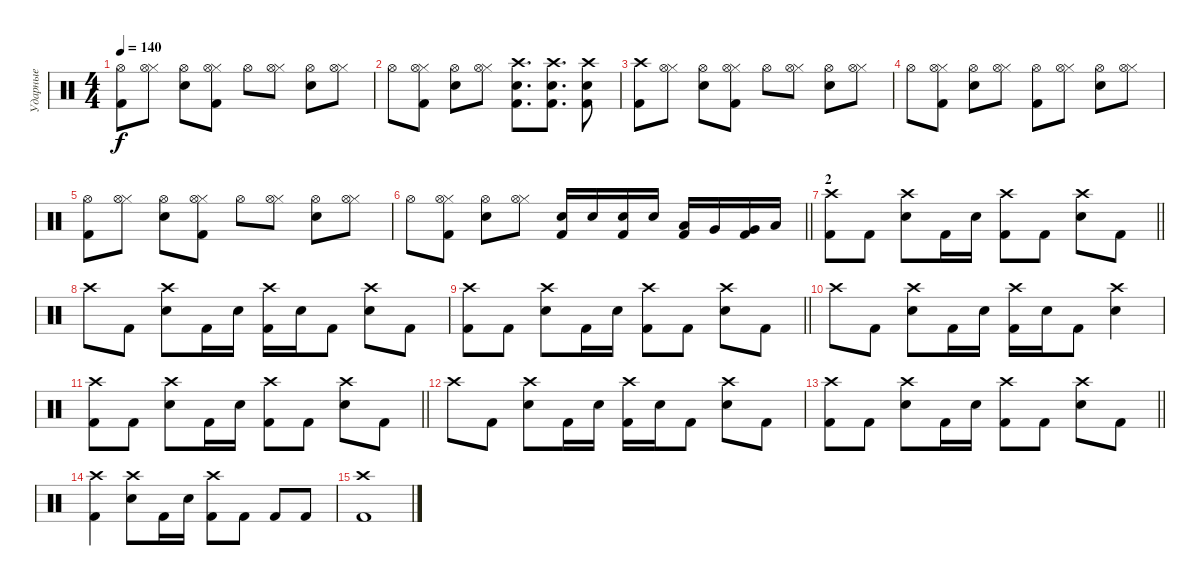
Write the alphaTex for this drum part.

\track ("Ударные" "Ударные") {instrument percussion}
\staff {score}
\articulation defaults
\ts (4 4)
\tempo 140
\clef neutral
\ks c
("Hi-Hat (open)" "Kick (hit) 2").8{dy f} ("Hi-Hat (closed)" "Hi-Hat (open)").8 ("Hi-Hat (open)" "Snare (hit) 2").8 ("Hi-Hat (closed)" "Hi-Hat (open)" "Kick (hit) 2").8 "Hi-Hat (open)".8 ("Hi-Hat (closed)" "Hi-Hat (open)").8 ("Hi-Hat (open)" "Snare (hit) 2").8 ("Hi-Hat (closed)" "Hi-Hat (open)").8 |
"Hi-Hat (open)".8 ("Hi-Hat (closed)" "Hi-Hat (open)" "Kick (hit) 2").8 ("Hi-Hat (open)" "Snare (hit) 2").8 ("Hi-Hat (closed)" "Hi-Hat (open)").8 ("Crash high (hit)" "Snare (hit) 2" "Kick (hit) 2").8{d} ("Crash high (hit)" "Snare (hit) 2" "Kick (hit) 2").8{d} ("Crash high (hit)" "Snare (hit) 2" "Kick (hit) 2").8 |
("Crash high (hit)" "Kick (hit) 2").8 ("Hi-Hat (closed)" "Hi-Hat (open)").8 ("Hi-Hat (open)" "Snare (hit) 2").8 ("Hi-Hat (closed)" "Hi-Hat (open)" "Kick (hit) 2").8 "Hi-Hat (open)".8 ("Hi-Hat (closed)" "Hi-Hat (open)").8 ("Hi-Hat (open)" "Snare (hit) 2").8 ("Hi-Hat (closed)" "Hi-Hat (open)").8 |
"Hi-Hat (open)".8 ("Hi-Hat (closed)" "Hi-Hat (open)" "Kick (hit) 2").8 ("Hi-Hat (open)" "Snare (hit) 2").8 ("Hi-Hat (closed)" "Hi-Hat (open)").8 ("Hi-Hat (open)" "Kick (hit) 2").8 ("Hi-Hat (closed)" "Hi-Hat (open)").8 ("Hi-Hat (open)" "Snare (hit) 2").8 ("Hi-Hat (closed)" "Hi-Hat (open)").8 |
("Hi-Hat (open)" "Kick (hit) 2").8 ("Hi-Hat (closed)" "Hi-Hat (open)").8 ("Hi-Hat (open)" "Snare (hit) 2").8 ("Hi-Hat (closed)" "Hi-Hat (open)" "Kick (hit) 2").8 "Hi-Hat (open)".8 ("Hi-Hat (closed)" "Hi-Hat (open)").8 ("Hi-Hat (open)" "Snare (hit) 2").8 ("Hi-Hat (closed)" "Hi-Hat (open)").8 |
\barLineRight lightlight "Hi-Hat (open)".8
("Hi-Hat (closed)" "Hi-Hat (open)" "Kick (hit) 2").8 ("Hi-Hat (open)" "Snare (hit) 2").8 ("Hi-Hat (closed)" "Hi-Hat (open)").8 ("Snare (hit) 2" "Kick (hit) 2").16 "Snare (hit) 2".16 ("Snare (hit) 2" "Kick (hit) 2").16 "Snare (hit) 2".16 ("Low Floor Tom (hit)" "Kick (hit) 2").16 "Very Low Tom (hit)".16 ("Very Low Tom (hit)" "Kick (hit) 2").16 "Low Tom (hit)".16 |
\section ("" "2")
\barLineRight lightlight
("Crash high (hit)" "Kick (hit) 2").8 "Kick (hit) 2".8 ("Crash high (hit)" "Snare (hit) 2").8 "Kick (hit) 2".16 "Snare (hit) 2".16 ("Crash high (hit)" "Kick (hit) 2").8 "Kick (hit) 2".8 ("Crash high (hit)" "Snare (hit) 2").8 "Kick (hit) 2".8 |
"Crash high (hit)".8 "Kick (hit) 2".8 ("Crash high (hit)" "Snare (hit) 2").8 "Kick (hit) 2".16 "Snare (hit) 2".16 ("Crash high (hit)" "Kick (hit) 2").16 "Snare (hit) 2".16 "Kick (hit) 2".8 ("Crash high (hit)" "Snare (hit) 2").8 "Kick (hit) 2".8 |
\barLineRight lightlight
("Crash high (hit)" "Kick (hit) 2").8 "Kick (hit) 2".8 ("Crash high (hit)" "Snare (hit) 2").8 "Kick (hit) 2".16 "Snare (hit) 2".16 ("Crash high (hit)" "Kick (hit) 2").8 "Kick (hit) 2".8 ("Crash high (hit)" "Snare (hit) 2").8 "Kick (hit) 2".8 |
"Crash high (hit)".8 "Kick (hit) 2".8 ("Crash high (hit)" "Snare (hit) 2").8 "Kick (hit) 2".16 "Snare (hit) 2".16 ("Crash high (hit)" "Kick (hit) 2").16 "Snare (hit) 2".16 "Kick (hit) 2".8 ("Crash high (hit)" "Snare (hit) 2").4 |
\barLineRight lightlight
("Crash high (hit)" "Kick (hit) 2").8 "Kick (hit) 2".8 ("Crash high (hit)" "Snare (hit) 2").8 "Kick (hit) 2".16 "Snare (hit) 2".16 ("Crash high (hit)" "Kick (hit) 2").8 "Kick (hit) 2".8 ("Crash high (hit)" "Snare (hit) 2").8 "Kick (hit) 2".8 |
"Crash high (hit)".8 "Kick (hit) 2".8 ("Crash high (hit)" "Snare (hit) 2").8 "Kick (hit) 2".16 "Snare (hit) 2".16 ("Crash high (hit)" "Kick (hit) 2").16 "Snare (hit) 2".16 "Kick (hit) 2".8 ("Crash high (hit)" "Snare (hit) 2").8 "Kick (hit) 2".8 |
\barLineRight lightlight
("Crash high (hit)" "Kick (hit) 2").8 "Kick (hit) 2".8 ("Crash high (hit)" "Snare (hit) 2").8 "Kick (hit) 2".16 "Snare (hit) 2".16 ("Crash high (hit)" "Kick (hit) 2").8 "Kick (hit) 2".8 ("Crash high (hit)" "Snare (hit) 2").8 "Kick (hit) 2".8 |
("Crash high (hit)" "Kick (hit) 2").4 ("Crash high (hit)" "Snare (hit) 2").8 "Kick (hit) 2".16 "Snare (hit) 2".16 ("Crash high (hit)" "Kick (hit) 2").8 "Kick (hit) 2".8 "Kick (hit) 2".8 "Kick (hit) 2".8 |
("Crash high (hit)" "Kick (hit) 2").1
